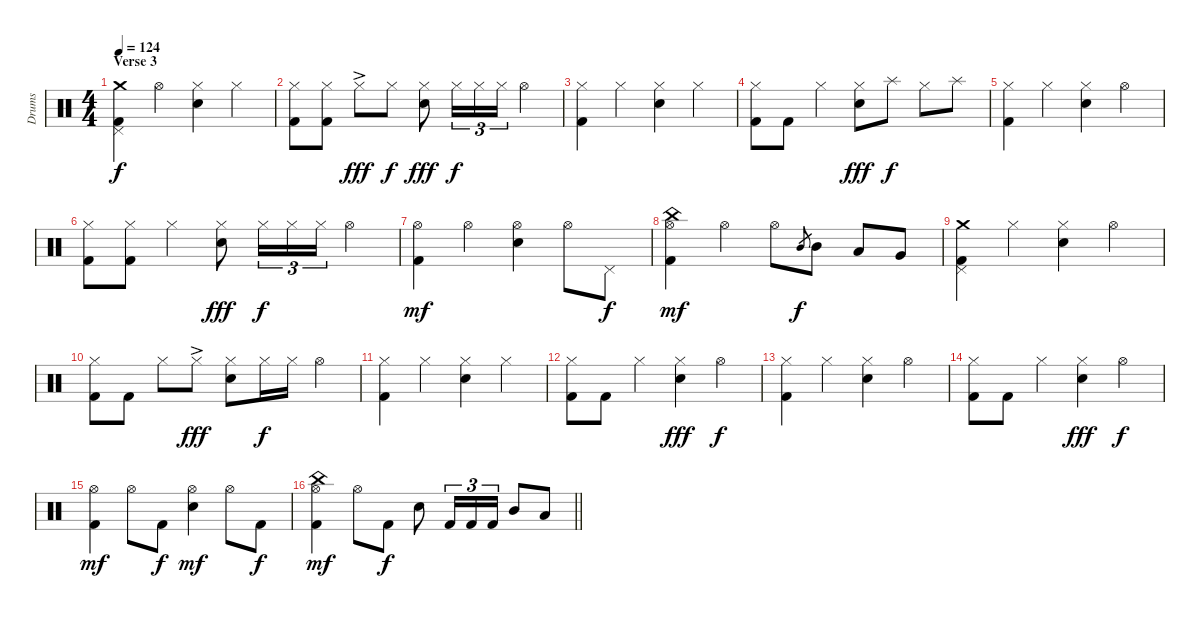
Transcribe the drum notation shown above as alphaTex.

\track ("Drums" "Drums") {instrument percussion}
\staff {score}
\articulation defaults
\ts (4 4)
\section ("" "Verse 3")
\tempo 124
\clef neutral
\ks c
("Crash medium (hit)" "Pedal Hi-Hat (hit)" "Kick (hit) 2").4{dy f} "Hi-Hat (open)".4 ("Hi-Hat (closed)" "Electric Snare (hit)").4 "Hi-Hat (closed)".4 |
("Hi-Hat (closed)" "Kick (hit) 2").8 ("Hi-Hat (closed)" "Kick (hit) 2").8 "Hi-Hat (closed)"{ac}.8{dy fff} "Hi-Hat (closed)".8{dy f} ("Hi-Hat (closed)" "Electric Snare (hit)").8{dy fff} "Hi-Hat (closed)".16{tu (3 2) dy f} "Hi-Hat (closed)".16{tu (3 2)} "Hi-Hat (closed)".16{tu (3 2)} "Hi-Hat (open)".4 |
("Hi-Hat (closed)" "Kick (hit) 2").4 "Hi-Hat (closed)".4 ("Hi-Hat (closed)" "Electric Snare (hit)").4 "Hi-Hat (closed)".4 |
("Hi-Hat (closed)" "Kick (hit) 2").8 "Kick (hit) 2".8 "Hi-Hat (closed)".4 ("Hi-Hat (closed)" "Electric Snare (hit)").8{dy fff} "Splash (hit)".8{dy f} "Hi-Hat (closed)".8 "Splash (hit)".8 |
("Hi-Hat (closed)" "Kick (hit) 2").4 "Hi-Hat (closed)".4 ("Hi-Hat (closed)" "Electric Snare (hit)").4 "Hi-Hat (open)".4 |
("Hi-Hat (closed)" "Kick (hit) 2").8 ("Hi-Hat (closed)" "Kick (hit) 2").8 "Hi-Hat (closed)".4 ("Hi-Hat (closed)" "Electric Snare (hit)").8{dy fff} "Hi-Hat (closed)".16{tu (3 2) dy f} "Hi-Hat (closed)".16{tu (3 2)} "Hi-Hat (closed)".16{tu (3 2)} "Hi-Hat (open)".4 |
("Hi-Hat (open)" "Kick (hit) 2").4{dy mf} "Hi-Hat (open)".4 ("Hi-Hat (open)" "Electric Snare (hit)").4 "Hi-Hat (open)".8 "Pedal Hi-Hat (hit)".8{dy f} |
("China (hit)" "Hi-Hat (open)" "Kick (hit) 2").4{dy mf} "Hi-Hat (open)".4 "Hi-Hat (open)".8 "Mid Tom (hit)".8{gr dy f} "Mid Tom (hit)".8 "Low Tom (hit)".8 "Very Low Tom (hit)".8 |
("Crash medium (hit)" "Pedal Hi-Hat (hit)" "Kick (hit) 2").4 "Hi-Hat (closed)".4 ("Hi-Hat (closed)" "Electric Snare (hit)").4 "Hi-Hat (open)".4 |
("Hi-Hat (closed)" "Kick (hit) 2").8 "Kick (hit) 2".8 "Hi-Hat (closed)".8 "Hi-Hat (closed)"{ac}.8{dy fff} ("Hi-Hat (closed)" "Electric Snare (hit)").8 "Hi-Hat (closed)".16{dy f} "Hi-Hat (closed)".16 "Hi-Hat (open)".4 |
("Hi-Hat (closed)" "Kick (hit) 2").4 "Hi-Hat (closed)".4 ("Hi-Hat (closed)" "Electric Snare (hit)").4 "Hi-Hat (closed)".4 |
("Hi-Hat (closed)" "Kick (hit) 2").8 "Kick (hit) 2".8 "Hi-Hat (closed)".4 ("Hi-Hat (closed)" "Electric Snare (hit)").4{dy fff} "Hi-Hat (open)".4{dy f} |
("Hi-Hat (closed)" "Kick (hit) 2").4 "Hi-Hat (closed)".4 ("Hi-Hat (closed)" "Electric Snare (hit)").4 "Hi-Hat (open)".4 |
("Hi-Hat (closed)" "Kick (hit) 2").8 "Kick (hit) 2".8 "Hi-Hat (closed)".4 ("Hi-Hat (closed)" "Electric Snare (hit)").4{dy fff} "Hi-Hat (open)".4{dy f} |
("Hi-Hat (open)" "Kick (hit) 2").4{dy mf} "Hi-Hat (open)".8 "Kick (hit) 2".8{dy f} ("Hi-Hat (open)" "Electric Snare (hit)").4{dy mf} "Hi-Hat (open)".8 "Kick (hit) 2".8{dy f} |
\barLineRight lightlight
("China (hit)" "Hi-Hat (open)" "Kick (hit) 2").4{dy mf} "Hi-Hat (open)".8 "Kick (hit) 2".8{dy f} "Electric Snare (hit)".8 "Kick (hit) 2".16{tu (3 2)} "Kick (hit) 2".16{tu (3 2)} "Kick (hit) 2".16{tu (3 2)} "Mid Tom (hit)".8 "Low Tom (hit)".8
